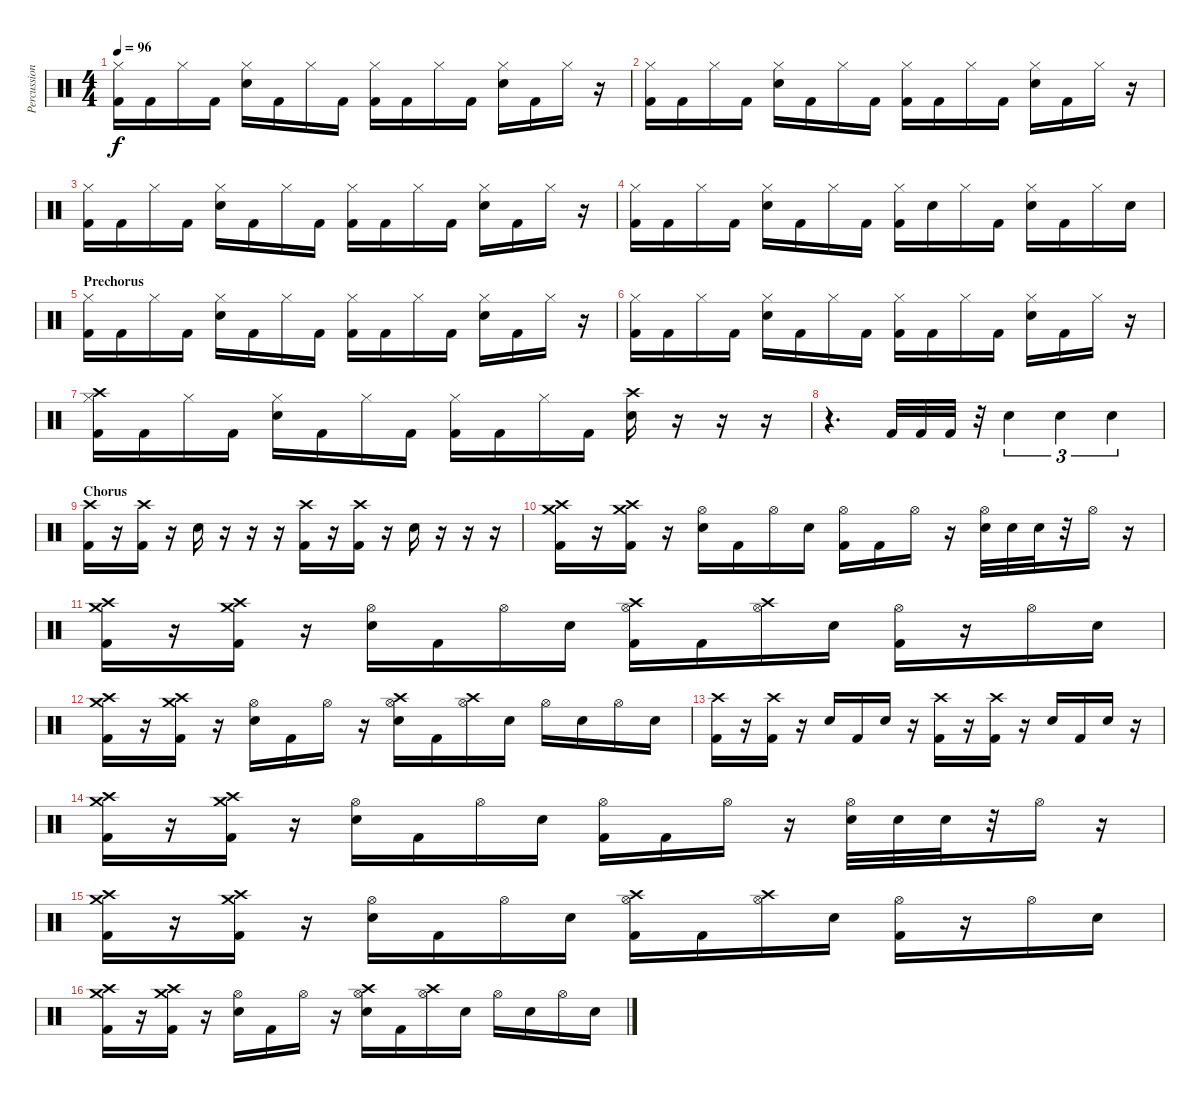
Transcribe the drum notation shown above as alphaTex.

\track ("Percussions" "Percussion") {instrument percussion}
\staff {score}
\articulation defaults
\ts (4 4)
\tempo 96
\clef neutral
\ks c
("Hi-Hat (closed)" "Kick (hit) 2").16{dy f} "Kick (hit) 2".16 "Hi-Hat (closed)".16 "Kick (hit) 2".16 ("Hi-Hat (closed)" "Snare (hit) 2").16 "Kick (hit) 2".16 "Hi-Hat (closed)".16 "Kick (hit) 2".16 ("Hi-Hat (closed)" "Kick (hit) 2").16 "Kick (hit) 2".16 "Hi-Hat (closed)".16 "Kick (hit) 2".16 ("Hi-Hat (closed)" "Snare (hit) 2").16 "Kick (hit) 2".16 "Hi-Hat (closed)".16 r.16 |
("Hi-Hat (closed)" "Kick (hit) 2").16 "Kick (hit) 2".16 "Hi-Hat (closed)".16 "Kick (hit) 2".16 ("Hi-Hat (closed)" "Snare (hit) 2").16 "Kick (hit) 2".16 "Hi-Hat (closed)".16 "Kick (hit) 2".16 ("Hi-Hat (closed)" "Kick (hit) 2").16 "Kick (hit) 2".16 "Hi-Hat (closed)".16 "Kick (hit) 2".16 ("Hi-Hat (closed)" "Snare (hit) 2").16 "Kick (hit) 2".16 "Hi-Hat (closed)".16 r.16 |
("Hi-Hat (closed)" "Kick (hit) 2").16 "Kick (hit) 2".16 "Hi-Hat (closed)".16 "Kick (hit) 2".16 ("Hi-Hat (closed)" "Snare (hit) 2").16 "Kick (hit) 2".16 "Hi-Hat (closed)".16 "Kick (hit) 2".16 ("Hi-Hat (closed)" "Kick (hit) 2").16 "Kick (hit) 2".16 "Hi-Hat (closed)".16 "Kick (hit) 2".16 ("Hi-Hat (closed)" "Snare (hit) 2").16 "Kick (hit) 2".16 "Hi-Hat (closed)".16 r.16 |
("Hi-Hat (closed)" "Kick (hit) 2").16 "Kick (hit) 2".16 "Hi-Hat (closed)".16 "Kick (hit) 2".16 ("Hi-Hat (closed)" "Snare (hit) 2").16 "Kick (hit) 2".16 "Hi-Hat (closed)".16 "Kick (hit) 2".16 ("Hi-Hat (closed)" "Kick (hit) 2").16 "Snare (hit) 2".16 "Hi-Hat (closed)".16 "Kick (hit) 2".16 ("Hi-Hat (closed)" "Snare (hit) 2").16 "Kick (hit) 2".16 "Hi-Hat (closed)".16 "Snare (hit) 2".16 |
\section ("" "Prechorus")
("Hi-Hat (closed)" "Kick (hit) 2").16 "Kick (hit) 2".16 "Hi-Hat (closed)".16 "Kick (hit) 2".16 ("Hi-Hat (closed)" "Snare (hit) 2").16 "Kick (hit) 2".16 "Hi-Hat (closed)".16 "Kick (hit) 2".16 ("Hi-Hat (closed)" "Kick (hit) 2").16 "Kick (hit) 2".16 "Hi-Hat (closed)".16 "Kick (hit) 2".16 ("Hi-Hat (closed)" "Snare (hit) 2").16 "Kick (hit) 2".16 "Hi-Hat (closed)".16 r.16 |
("Hi-Hat (closed)" "Kick (hit) 2").16 "Kick (hit) 2".16 "Hi-Hat (closed)".16 "Kick (hit) 2".16 ("Hi-Hat (closed)" "Snare (hit) 2").16 "Kick (hit) 2".16 "Hi-Hat (closed)".16 "Kick (hit) 2".16 ("Hi-Hat (closed)" "Kick (hit) 2").16 "Kick (hit) 2".16 "Hi-Hat (closed)".16 "Kick (hit) 2".16 ("Hi-Hat (closed)" "Snare (hit) 2").16 "Kick (hit) 2".16 "Hi-Hat (closed)".16 r.16 |
("Crash high (hit)" "Hi-Hat (closed)" "Kick (hit) 2").16 "Kick (hit) 2".16 "Hi-Hat (closed)".16 "Kick (hit) 2".16 ("Hi-Hat (closed)" "Snare (hit) 2").16 "Kick (hit) 2".16 "Hi-Hat (closed)".16 "Kick (hit) 2".16 ("Hi-Hat (closed)" "Kick (hit) 2").16 "Kick (hit) 2".16 "Hi-Hat (closed)".16 "Kick (hit) 2".16 ("Crash high (hit)" "Snare (hit) 2").16 r.16 r.16 r.16 |
r.4{d} "Kick (hit) 2".32 "Kick (hit) 2".32 "Kick (hit) 2".32 r.32 "Snare (hit) 2".4{tu (3 2)} "Snare (hit) 2".4{tu (3 2)} "Snare (hit) 2".4{tu (3 2)} |
\section ("" "Chorus")
("Crash high (hit)" "Kick (hit) 2").16 r.16 ("Crash high (hit)" "Kick (hit) 2").16 r.16 "Snare (hit) 2".16 r.16 r.16 r.16 ("Crash high (hit)" "Kick (hit) 2").16 r.16 ("Crash high (hit)" "Kick (hit) 2").16 r.16 "Snare (hit) 2".16 r.16 r.16 r.16 |
("Crash high (hit)" "Crash medium (hit)" "Kick (hit) 2").16 r.16 ("Crash high (hit)" "Crash medium (hit)" "Kick (hit) 2").16 r.16 ("Hi-Hat (open)" "Snare (hit) 2").16 "Kick (hit) 2".16 "Hi-Hat (open)".16 "Snare (hit) 2".16 ("Hi-Hat (open)" "Kick (hit) 2").16 "Kick (hit) 2".16 "Hi-Hat (open)".16 r.16 ("Hi-Hat (open)" "Snare (hit) 2").32 "Snare (hit) 2".32 "Snare (hit) 2".32 r.32 "Hi-Hat (open)".16 r.16 |
("Crash high (hit)" "Crash medium (hit)" "Kick (hit) 2").16 r.16 ("Crash high (hit)" "Crash medium (hit)" "Kick (hit) 2").16 r.16 ("Hi-Hat (open)" "Snare (hit) 2").16 "Kick (hit) 2".16 "Hi-Hat (open)".16 "Snare (hit) 2".16 ("Crash high (hit)" "Hi-Hat (open)" "Kick (hit) 2").16 "Kick (hit) 2".16 ("Crash high (hit)" "Hi-Hat (open)").16 "Snare (hit) 2".16 ("Hi-Hat (open)" "Kick (hit) 2").16 r.16 "Hi-Hat (open)".16 "Snare (hit) 2".16 |
("Crash high (hit)" "Crash medium (hit)" "Kick (hit) 2").16 r.16 ("Crash high (hit)" "Crash medium (hit)" "Kick (hit) 2").16 r.16 ("Hi-Hat (open)" "Snare (hit) 2").16 "Kick (hit) 2".16 "Hi-Hat (open)".16 r.16 ("Crash high (hit)" "Hi-Hat (open)" "Snare (hit) 2").16 "Kick (hit) 2".16 ("Crash high (hit)" "Hi-Hat (open)").16 "Snare (hit) 2".16 "Hi-Hat (open)".16 "Snare (hit) 2".16 "Hi-Hat (open)".16 "Snare (hit) 2".16 |
("Crash high (hit)" "Kick (hit) 2").16 r.16 ("Crash high (hit)" "Kick (hit) 2").16 r.16 "Snare (hit) 2".16 "Kick (hit) 2".16 "Snare (hit) 2".16 r.16 ("Crash high (hit)" "Kick (hit) 2").16 r.16 ("Crash high (hit)" "Kick (hit) 2").16 r.16 "Snare (hit) 2".16 "Kick (hit) 2".16 "Snare (hit) 2".16 r.16 |
("Crash high (hit)" "Crash medium (hit)" "Kick (hit) 2").16 r.16 ("Crash high (hit)" "Crash medium (hit)" "Kick (hit) 2").16 r.16 ("Hi-Hat (open)" "Snare (hit) 2").16 "Kick (hit) 2".16 "Hi-Hat (open)".16 "Snare (hit) 2".16 ("Hi-Hat (open)" "Kick (hit) 2").16 "Kick (hit) 2".16 "Hi-Hat (open)".16 r.16 ("Hi-Hat (open)" "Snare (hit) 2").32 "Snare (hit) 2".32 "Snare (hit) 2".32 r.32 "Hi-Hat (open)".16 r.16 |
("Crash high (hit)" "Crash medium (hit)" "Kick (hit) 2").16 r.16 ("Crash high (hit)" "Crash medium (hit)" "Kick (hit) 2").16 r.16 ("Hi-Hat (open)" "Snare (hit) 2").16 "Kick (hit) 2".16 "Hi-Hat (open)".16 "Snare (hit) 2".16 ("Crash high (hit)" "Hi-Hat (open)" "Kick (hit) 2").16 "Kick (hit) 2".16 ("Crash high (hit)" "Hi-Hat (open)").16 "Snare (hit) 2".16 ("Hi-Hat (open)" "Kick (hit) 2").16 r.16 "Hi-Hat (open)".16 "Snare (hit) 2".16 |
("Crash high (hit)" "Crash medium (hit)" "Kick (hit) 2").16 r.16 ("Crash high (hit)" "Crash medium (hit)" "Kick (hit) 2").16 r.16 ("Hi-Hat (open)" "Snare (hit) 2").16 "Kick (hit) 2".16 "Hi-Hat (open)".16 r.16 ("Crash high (hit)" "Hi-Hat (open)" "Snare (hit) 2").16 "Kick (hit) 2".16 ("Crash high (hit)" "Hi-Hat (open)").16 "Snare (hit) 2".16 "Hi-Hat (open)".16 "Snare (hit) 2".16 "Hi-Hat (open)".16 "Snare (hit) 2".16
